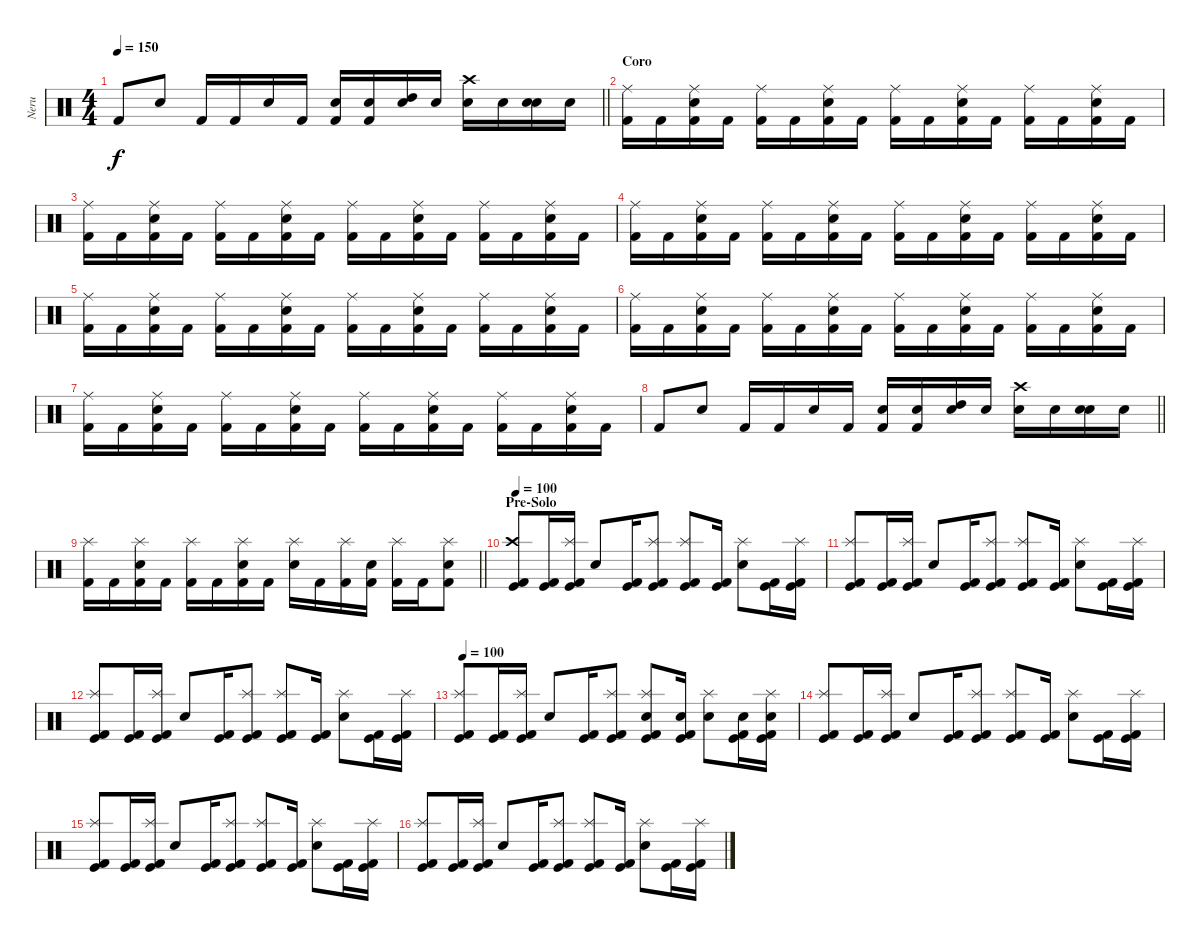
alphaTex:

\track ("Neru" "Neru") {instrument percussion}
\staff {score}
\articulation defaults
\ts (4 4)
\tempo 150
\clef neutral
\barLineRight lightlight
\ks c "Kick (hit) 2".8{dy f} "Electric Snare (hit)".8 "Kick (hit) 2".16 "Kick (hit) 2".16 "Electric Snare (hit)".16 "Kick (hit) 2".16
("Snare (hit) 2" "Kick (hit) 2").16 ("Snare (hit) 2" "Kick (hit) 2").16 ("High Tom (hit)" "Electric Snare (hit)").16 "Snare (hit) 2".16 ("Snare (hit) 2" "Crash high (hit)").16 "Snare (hit) 2".16 ("Snare (hit) 2" "Electric Snare (hit)").16 "Snare (hit) 2".16 |
\section ("" "Coro")
("Kick (hit) 2" "Ride (middle)").16 "Kick (hit) 2".16 ("Kick (hit) 2" "Electric Snare (hit)" "Ride (middle)").16 "Kick (hit) 2".16 ("Kick (hit) 2" "Ride (middle)").16 "Kick (hit) 2".16 ("Kick (hit) 2" "Electric Snare (hit)" "Ride (middle)").16 "Kick (hit) 2".16 ("Kick (hit) 2" "Ride (middle)").16 "Kick (hit) 2".16 ("Kick (hit) 2" "Electric Snare (hit)" "Ride (middle)").16 "Kick (hit) 2".16 ("Kick (hit) 2" "Ride (middle)").16 "Kick (hit) 2".16 ("Kick (hit) 2" "Electric Snare (hit)" "Ride (middle)").16 "Kick (hit) 2".16 |
("Kick (hit) 2" "Ride (middle)").16 "Kick (hit) 2".16 ("Kick (hit) 2" "Electric Snare (hit)" "Ride (middle)").16 "Kick (hit) 2".16 ("Kick (hit) 2" "Ride (middle)").16 "Kick (hit) 2".16 ("Kick (hit) 2" "Electric Snare (hit)" "Ride (middle)").16 "Kick (hit) 2".16 ("Kick (hit) 2" "Ride (middle)").16 "Kick (hit) 2".16 ("Kick (hit) 2" "Electric Snare (hit)" "Ride (middle)").16 "Kick (hit) 2".16 ("Kick (hit) 2" "Ride (middle)").16 "Kick (hit) 2".16 ("Kick (hit) 2" "Electric Snare (hit)" "Ride (middle)").16 "Kick (hit) 2".16 |
("Kick (hit) 2" "Ride (middle)").16 "Kick (hit) 2".16 ("Kick (hit) 2" "Electric Snare (hit)" "Ride (middle)").16 "Kick (hit) 2".16 ("Kick (hit) 2" "Ride (middle)").16 "Kick (hit) 2".16 ("Kick (hit) 2" "Electric Snare (hit)" "Ride (middle)").16 "Kick (hit) 2".16 ("Kick (hit) 2" "Ride (middle)").16 "Kick (hit) 2".16 ("Kick (hit) 2" "Electric Snare (hit)" "Ride (middle)").16 "Kick (hit) 2".16 ("Kick (hit) 2" "Ride (middle)").16 "Kick (hit) 2".16 ("Kick (hit) 2" "Electric Snare (hit)" "Ride (middle)").16 "Kick (hit) 2".16 |
("Kick (hit) 2" "Ride (middle)").16 "Kick (hit) 2".16 ("Kick (hit) 2" "Electric Snare (hit)" "Ride (middle)").16 "Kick (hit) 2".16 ("Kick (hit) 2" "Ride (middle)").16 "Kick (hit) 2".16 ("Kick (hit) 2" "Electric Snare (hit)" "Ride (middle)").16 "Kick (hit) 2".16 ("Kick (hit) 2" "Ride (middle)").16 "Kick (hit) 2".16 ("Kick (hit) 2" "Electric Snare (hit)" "Ride (middle)").16 "Kick (hit) 2".16 ("Kick (hit) 2" "Ride (middle)").16 "Kick (hit) 2".16 ("Kick (hit) 2" "Electric Snare (hit)" "Ride (middle)").16 "Kick (hit) 2".16 |
("Kick (hit) 2" "Ride (middle)").16 "Kick (hit) 2".16 ("Kick (hit) 2" "Electric Snare (hit)" "Ride (middle)").16 "Kick (hit) 2".16 ("Kick (hit) 2" "Ride (middle)").16 "Kick (hit) 2".16 ("Kick (hit) 2" "Electric Snare (hit)" "Ride (middle)").16 "Kick (hit) 2".16 ("Kick (hit) 2" "Ride (middle)").16 "Kick (hit) 2".16 ("Kick (hit) 2" "Electric Snare (hit)" "Ride (middle)").16 "Kick (hit) 2".16 ("Kick (hit) 2" "Ride (middle)").16 "Kick (hit) 2".16 ("Kick (hit) 2" "Electric Snare (hit)" "Ride (middle)").16 "Kick (hit) 2".16 |
("Kick (hit) 2" "Ride (middle)").16 "Kick (hit) 2".16 ("Kick (hit) 2" "Electric Snare (hit)" "Ride (middle)").16 "Kick (hit) 2".16 ("Kick (hit) 2" "Ride (middle)").16 "Kick (hit) 2".16 ("Kick (hit) 2" "Electric Snare (hit)" "Ride (middle)").16 "Kick (hit) 2".16 ("Kick (hit) 2" "Ride (middle)").16 "Kick (hit) 2".16 ("Kick (hit) 2" "Electric Snare (hit)" "Ride (middle)").16 "Kick (hit) 2".16 ("Kick (hit) 2" "Ride (middle)").16 "Kick (hit) 2".16 ("Kick (hit) 2" "Electric Snare (hit)" "Ride (middle)").16 "Kick (hit) 2".16 |
\barLineRight lightlight "Kick (hit) 2".8 "Electric Snare (hit)".8 "Kick (hit) 2".16 "Kick (hit) 2".16 "Electric Snare (hit)".16 "Kick (hit) 2".16
("Snare (hit) 2" "Kick (hit) 2").16 ("Snare (hit) 2" "Kick (hit) 2").16 ("High Tom (hit)" "Electric Snare (hit)").16 "Snare (hit) 2".16 ("Snare (hit) 2" "Crash high (hit)").16 "Snare (hit) 2".16 ("Snare (hit) 2" "Electric Snare (hit)").16 "Snare (hit) 2".16 |
\barLineRight lightlight
("Kick (hit) 2" "Splash (hit)").16 "Kick (hit) 2".16 ("Kick (hit) 2" "Electric Snare (hit)" "Splash (hit)").16 "Kick (hit) 2".16 ("Kick (hit) 2" "Splash (hit)").16 "Kick (hit) 2".16 ("Kick (hit) 2" "Electric Snare (hit)" "Splash (hit)").16 "Kick (hit) 2".16 ("Electric Snare (hit)" "Splash (hit)").16 "Kick (hit) 2".16 ("Kick (hit) 2" "Splash (hit)").16 ("Kick (hit) 2" "Electric Snare (hit)").16 ("Kick (hit) 2" "Splash (hit)").16 "Kick (hit) 2".16 ("Kick (hit) 2" "Electric Snare (hit)" "Splash (hit)").8 |
\section ("" "Pre-Solo")
\tempo 100
("Kick (hit)" "Kick (hit) 2" "Crash high (hit)").8 ("Kick (hit)" "Kick (hit) 2").16 ("Kick (hit)" "Kick (hit) 2" "Splash (hit)").16 "Electric Snare (hit)".8 ("Kick (hit)" "Kick (hit) 2").16 ("Kick (hit)" "Kick (hit) 2" "Splash (hit)").8 ("Kick (hit)" "Kick (hit) 2" "Splash (hit)").8 ("Kick (hit)" "Kick (hit) 2").16 ("Electric Snare (hit)" "Splash (hit)").8 ("Kick (hit)" "Kick (hit) 2").16 ("Kick (hit)" "Kick (hit) 2" "Splash (hit)").16 |
("Kick (hit)" "Kick (hit) 2" "Splash (hit)").8 ("Kick (hit)" "Kick (hit) 2").16 ("Kick (hit)" "Kick (hit) 2" "Splash (hit)").16 "Electric Snare (hit)".8 ("Kick (hit)" "Kick (hit) 2").16 ("Kick (hit)" "Kick (hit) 2" "Splash (hit)").8 ("Kick (hit)" "Kick (hit) 2" "Splash (hit)").8 ("Kick (hit)" "Kick (hit) 2").16 ("Electric Snare (hit)" "Splash (hit)").8 ("Kick (hit)" "Kick (hit) 2").16 ("Kick (hit)" "Kick (hit) 2" "Splash (hit)").16 |
("Kick (hit)" "Kick (hit) 2" "Splash (hit)").8 ("Kick (hit)" "Kick (hit) 2").16 ("Kick (hit)" "Kick (hit) 2" "Splash (hit)").16 "Electric Snare (hit)".8 ("Kick (hit)" "Kick (hit) 2").16 ("Kick (hit)" "Kick (hit) 2" "Splash (hit)").8 ("Kick (hit)" "Kick (hit) 2" "Splash (hit)").8 ("Kick (hit)" "Kick (hit) 2").16 ("Electric Snare (hit)" "Splash (hit)").8 ("Kick (hit)" "Kick (hit) 2").16 ("Kick (hit)" "Kick (hit) 2" "Splash (hit)").16 |
\tempo 100
("Kick (hit)" "Kick (hit) 2" "Splash (hit)").8 ("Kick (hit)" "Kick (hit) 2").16 ("Kick (hit)" "Kick (hit) 2" "Splash (hit)").16 "Electric Snare (hit)".8 ("Kick (hit)" "Kick (hit) 2").16 ("Kick (hit)" "Kick (hit) 2" "Splash (hit)").8 ("Kick (hit)" "Kick (hit) 2" "Electric Snare (hit)" "Splash (hit)").8 ("Kick (hit)" "Kick (hit) 2" "Electric Snare (hit)").16 ("Electric Snare (hit)" "Splash (hit)").8 ("Kick (hit)" "Kick (hit) 2" "Electric Snare (hit)").16 ("Kick (hit)" "Kick (hit) 2" "Electric Snare (hit)" "Splash (hit)").16 |
("Kick (hit)" "Kick (hit) 2" "Splash (hit)").8 ("Kick (hit)" "Kick (hit) 2").16 ("Kick (hit)" "Kick (hit) 2" "Splash (hit)").16 "Electric Snare (hit)".8 ("Kick (hit)" "Kick (hit) 2").16 ("Kick (hit)" "Kick (hit) 2" "Splash (hit)").8 ("Kick (hit)" "Kick (hit) 2" "Splash (hit)").8 ("Kick (hit)" "Kick (hit) 2").16 ("Electric Snare (hit)" "Splash (hit)").8 ("Kick (hit)" "Kick (hit) 2").16 ("Kick (hit)" "Kick (hit) 2" "Splash (hit)").16 |
("Kick (hit)" "Kick (hit) 2" "Splash (hit)").8 ("Kick (hit)" "Kick (hit) 2").16 ("Kick (hit)" "Kick (hit) 2" "Splash (hit)").16 "Electric Snare (hit)".8 ("Kick (hit)" "Kick (hit) 2").16 ("Kick (hit)" "Kick (hit) 2" "Splash (hit)").8 ("Kick (hit)" "Kick (hit) 2" "Splash (hit)").8 ("Kick (hit)" "Kick (hit) 2").16 ("Electric Snare (hit)" "Splash (hit)").8 ("Kick (hit)" "Kick (hit) 2").16 ("Kick (hit)" "Kick (hit) 2" "Splash (hit)").16 |
("Kick (hit)" "Kick (hit) 2" "Splash (hit)").8 ("Kick (hit)" "Kick (hit) 2").16 ("Kick (hit)" "Kick (hit) 2" "Splash (hit)").16 "Electric Snare (hit)".8 ("Kick (hit)" "Kick (hit) 2").16 ("Kick (hit)" "Kick (hit) 2" "Splash (hit)").8 ("Kick (hit)" "Kick (hit) 2" "Splash (hit)").8 ("Kick (hit)" "Kick (hit) 2").16 ("Electric Snare (hit)" "Splash (hit)").8 ("Kick (hit)" "Kick (hit) 2").16 ("Kick (hit)" "Kick (hit) 2" "Splash (hit)").16
